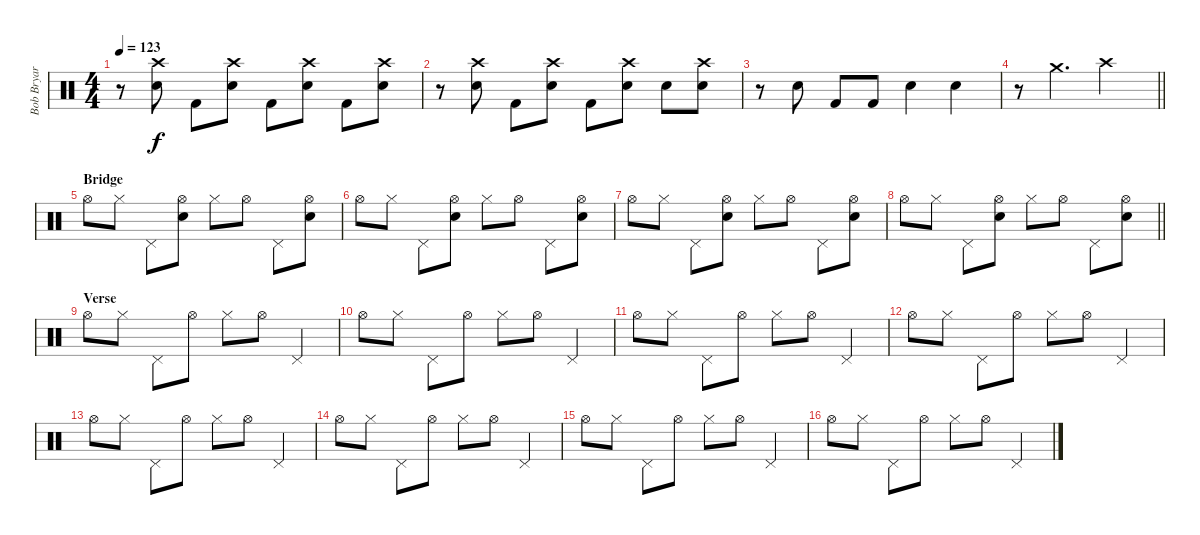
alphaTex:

\track ("Bob Bryar" "Bob Bryar") {instrument percussion}
\staff {score}
\articulation defaults
\ts (4 4)
\tempo 123
\clef neutral
\ks c
r.8{dy f} ("Crash high (hit)" "Electric Snare (hit)").8 "Kick (hit) 2".8 ("Crash high (hit)" "Electric Snare (hit)").8 "Kick (hit) 2".8 ("Crash high (hit)" "Electric Snare (hit)").8 "Kick (hit) 2".8 ("Crash high (hit)" "Electric Snare (hit)").8 |
r.8 ("Crash high (hit)" "Electric Snare (hit)").8 "Kick (hit) 2".8 ("Crash high (hit)" "Electric Snare (hit)").8 "Kick (hit) 2".8 ("Crash high (hit)" "Electric Snare (hit)").8 "Electric Snare (hit)".8 ("Crash high (hit)" "Electric Snare (hit)").8 |
r.8 "Electric Snare (hit)".8 "Kick (hit) 2".8 "Kick (hit) 2".8 "Electric Snare (hit)".4 "Electric Snare (hit)".4 |
\barLineRight lightlight
r.8 "Crash medium (hit)".4{d} "Crash high (hit)".2 |
\section ("" "Bridge")
"Hi-Hat (open)".8 "Hi-Hat (closed)".8 "Pedal Hi-Hat (hit)".8 ("Hi-Hat (open)" "Hand Clap (hit)").8 "Hi-Hat (closed)".8 "Hi-Hat (open)".8 "Pedal Hi-Hat (hit)".8 ("Hi-Hat (open)" "Hand Clap (hit)").8 |
"Hi-Hat (open)".8 "Hi-Hat (closed)".8 "Pedal Hi-Hat (hit)".8 ("Hi-Hat (open)" "Hand Clap (hit)").8 "Hi-Hat (closed)".8 "Hi-Hat (open)".8 "Pedal Hi-Hat (hit)".8 ("Hi-Hat (open)" "Hand Clap (hit)").8 |
"Hi-Hat (open)".8 "Hi-Hat (closed)".8 "Pedal Hi-Hat (hit)".8 ("Hi-Hat (open)" "Hand Clap (hit)").8 "Hi-Hat (closed)".8 "Hi-Hat (open)".8 "Pedal Hi-Hat (hit)".8 ("Hi-Hat (open)" "Hand Clap (hit)").8 |
\barLineRight lightlight "Hi-Hat (open)".8 "Hi-Hat (closed)".8 "Pedal Hi-Hat (hit)".8
("Hi-Hat (open)" "Hand Clap (hit)").8 "Hi-Hat (closed)".8 "Hi-Hat (open)".8 "Pedal Hi-Hat (hit)".8 ("Hi-Hat (open)" "Hand Clap (hit)").8 |
\section ("" "Verse")
"Hi-Hat (open)".8 "Hi-Hat (closed)".8 "Pedal Hi-Hat (hit)".8 "Hi-Hat (open)".8 "Hi-Hat (closed)".8 "Hi-Hat (open)".8 "Pedal Hi-Hat (hit)".4 |
"Hi-Hat (open)".8 "Hi-Hat (closed)".8 "Pedal Hi-Hat (hit)".8 "Hi-Hat (open)".8 "Hi-Hat (closed)".8 "Hi-Hat (open)".8 "Pedal Hi-Hat (hit)".4 |
"Hi-Hat (open)".8 "Hi-Hat (closed)".8 "Pedal Hi-Hat (hit)".8 "Hi-Hat (open)".8 "Hi-Hat (closed)".8 "Hi-Hat (open)".8 "Pedal Hi-Hat (hit)".4 |
"Hi-Hat (open)".8 "Hi-Hat (closed)".8 "Pedal Hi-Hat (hit)".8 "Hi-Hat (open)".8 "Hi-Hat (closed)".8 "Hi-Hat (open)".8 "Pedal Hi-Hat (hit)".4 |
"Hi-Hat (open)".8 "Hi-Hat (closed)".8 "Pedal Hi-Hat (hit)".8 "Hi-Hat (open)".8 "Hi-Hat (closed)".8 "Hi-Hat (open)".8 "Pedal Hi-Hat (hit)".4 |
"Hi-Hat (open)".8 "Hi-Hat (closed)".8 "Pedal Hi-Hat (hit)".8 "Hi-Hat (open)".8 "Hi-Hat (closed)".8 "Hi-Hat (open)".8 "Pedal Hi-Hat (hit)".4 |
"Hi-Hat (open)".8 "Hi-Hat (closed)".8 "Pedal Hi-Hat (hit)".8 "Hi-Hat (open)".8 "Hi-Hat (closed)".8 "Hi-Hat (open)".8 "Pedal Hi-Hat (hit)".4 |
"Hi-Hat (open)".8 "Hi-Hat (closed)".8 "Pedal Hi-Hat (hit)".8 "Hi-Hat (open)".8 "Hi-Hat (closed)".8 "Hi-Hat (open)".8 "Pedal Hi-Hat (hit)".4
